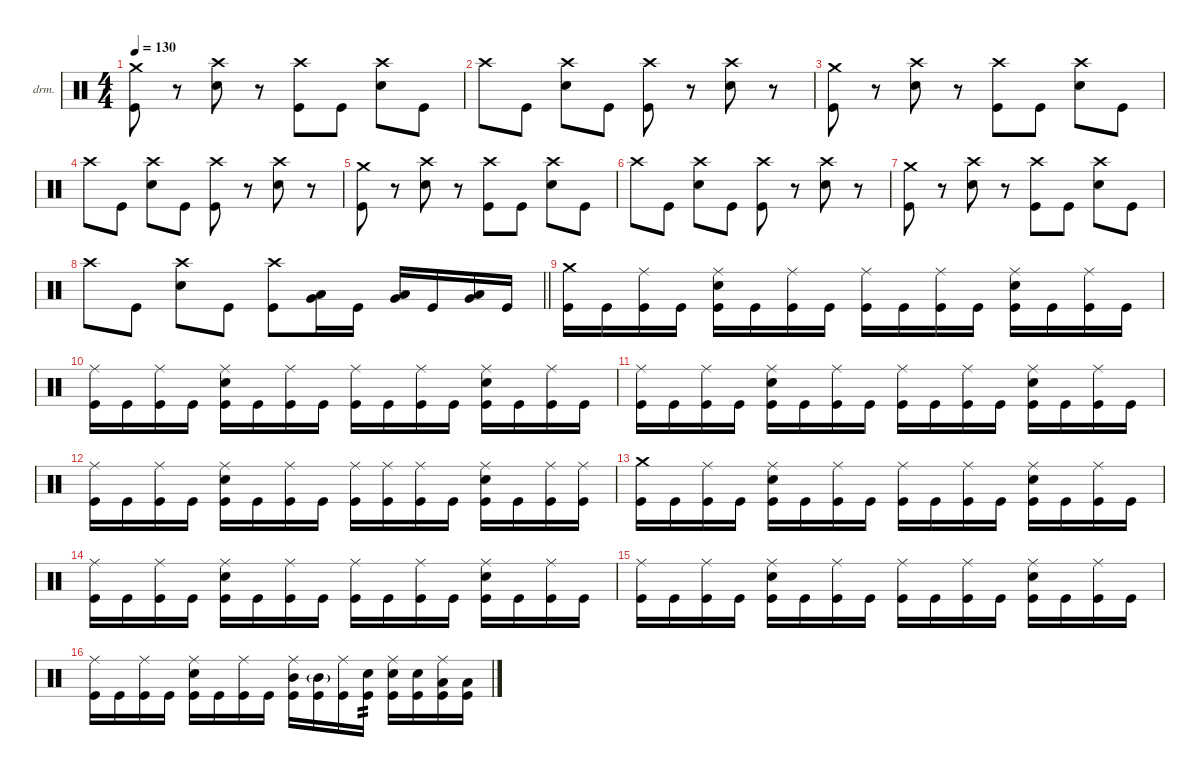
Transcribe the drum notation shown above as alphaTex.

\defaultSystemsLayout 4
\hideDynamics
\bracketExtendMode nobrackets
\firstSystemTrackNameOrientation horizontal
\otherSystemsTrackNameOrientation horizontal
\track ("Drums" "drm.") {instrument percussion}
\staff {score}
\articulation defaults
\ts (4 4)
\tempo 130
\clef neutral
\ks c
("Crash medium (hit)" "Kick (hit)").8{dy f} r.8 ("Crash high (hit)" "Snare (hit) 2").8 r.8 ("Crash high (hit)" "Kick (hit)").8 "Kick (hit)".8 ("Crash high (hit)" "Snare (hit) 2").8 "Kick (hit)".8 |
"Crash high (hit)".8 "Kick (hit)".8 ("Crash high (hit)" "Snare (hit) 2").8 "Kick (hit)".8 ("Crash high (hit)" "Kick (hit)").8 r.8 ("Crash high (hit)" "Snare (hit) 2").8 r.8 |
("Crash medium (hit)" "Kick (hit)").8 r.8 ("Crash high (hit)" "Snare (hit) 2").8 r.8 ("Crash high (hit)" "Kick (hit)").8 "Kick (hit)".8 ("Crash high (hit)" "Snare (hit) 2").8 "Kick (hit)".8 |
"Crash high (hit)".8 "Kick (hit)".8 ("Crash high (hit)" "Snare (hit) 2").8 "Kick (hit)".8 ("Crash high (hit)" "Kick (hit)").8 r.8 ("Crash high (hit)" "Snare (hit) 2").8 r.8 |
("Crash medium (hit)" "Kick (hit)").8 r.8 ("Crash high (hit)" "Snare (hit) 2").8 r.8 ("Crash high (hit)" "Kick (hit)").8 "Kick (hit)".8 ("Crash high (hit)" "Snare (hit) 2").8 "Kick (hit)".8 |
"Crash high (hit)".8 "Kick (hit)".8 ("Crash high (hit)" "Snare (hit) 2").8 "Kick (hit)".8 ("Crash high (hit)" "Kick (hit)").8 r.8 ("Crash high (hit)" "Snare (hit) 2").8 r.8 |
("Crash medium (hit)" "Kick (hit)").8 r.8 ("Crash high (hit)" "Snare (hit) 2").8 r.8 ("Crash high (hit)" "Kick (hit)").8 "Kick (hit)".8 ("Crash high (hit)" "Snare (hit) 2").8 "Kick (hit)".8 |
\barLineRight lightlight "Crash high (hit)".8 "Kick (hit)".8
("Crash high (hit)" "Snare (hit) 2").8 "Kick (hit)".8 ("Crash high (hit)" "Kick (hit)").8 ("Low Tom (hit)" "Very Low Tom (hit)").16 "Kick (hit)".16 ("Low Tom (hit)" "Very Low Tom (hit)").16 "Kick (hit)".16 ("Low Tom (hit)" "Very Low Tom (hit)").16 "Kick (hit)".16 |
\section ("" "")
("Crash medium (hit)" "Kick (hit)").16 "Kick (hit)".16 ("Ride (middle)" "Kick (hit)").16 "Kick (hit)".16 ("Ride (middle)" "Snare (hit) 2" "Kick (hit)").16 "Kick (hit)".16 ("Ride (middle)" "Kick (hit)").16 "Kick (hit)".16 ("Ride (middle)" "Kick (hit)").16 "Kick (hit)".16 ("Ride (middle)" "Kick (hit)").16 "Kick (hit)".16 ("Ride (middle)" "Snare (hit) 2" "Kick (hit)").16 "Kick (hit)".16 ("Ride (middle)" "Kick (hit)").16 "Kick (hit)".16 |
("Ride (middle)" "Kick (hit)").16 "Kick (hit)".16 ("Ride (middle)" "Kick (hit)").16 "Kick (hit)".16 ("Ride (middle)" "Snare (hit) 2" "Kick (hit)").16 "Kick (hit)".16 ("Ride (middle)" "Kick (hit)").16 "Kick (hit)".16 ("Ride (middle)" "Kick (hit)").16 "Kick (hit)".16 ("Ride (middle)" "Kick (hit)").16 "Kick (hit)".16 ("Ride (middle)" "Snare (hit) 2" "Kick (hit)").16 "Kick (hit)".16 ("Ride (middle)" "Kick (hit)").16 "Kick (hit)".16 |
("Ride (middle)" "Kick (hit)").16 "Kick (hit)".16 ("Ride (middle)" "Kick (hit)").16 "Kick (hit)".16 ("Ride (middle)" "Snare (hit) 2" "Kick (hit)").16 "Kick (hit)".16 ("Ride (middle)" "Kick (hit)").16 "Kick (hit)".16 ("Ride (middle)" "Kick (hit)").16 "Kick (hit)".16 ("Ride (middle)" "Kick (hit)").16 "Kick (hit)".16 ("Ride (middle)" "Snare (hit) 2" "Kick (hit)").16 "Kick (hit)".16 ("Ride (middle)" "Kick (hit)").16 "Kick (hit)".16 |
("Ride (middle)" "Kick (hit)").16 "Kick (hit)".16 ("Ride (middle)" "Kick (hit)").16 "Kick (hit)".16 ("Ride (middle)" "Snare (hit) 2" "Kick (hit)").16 "Kick (hit)".16 ("Ride (middle)" "Kick (hit)").16 "Kick (hit)".16 ("Ride (middle)" "Kick (hit)").16 ("Ride (middle)" "Kick (hit)").16 ("Ride (middle)" "Kick (hit)").16 "Kick (hit)".16 ("Ride (middle)" "Snare (hit) 2" "Kick (hit)").16 "Kick (hit)".16 ("Ride (middle)" "Kick (hit)").16 ("Ride (middle)" "Kick (hit)").16 |
("Crash medium (hit)" "Kick (hit)").16 "Kick (hit)".16 ("Ride (middle)" "Kick (hit)").16 "Kick (hit)".16 ("Ride (middle)" "Snare (hit) 2" "Kick (hit)").16 "Kick (hit)".16 ("Ride (middle)" "Kick (hit)").16 "Kick (hit)".16 ("Ride (middle)" "Kick (hit)").16 "Kick (hit)".16 ("Ride (middle)" "Kick (hit)").16 "Kick (hit)".16 ("Ride (middle)" "Snare (hit) 2" "Kick (hit)").16 "Kick (hit)".16 ("Ride (middle)" "Kick (hit)").16 "Kick (hit)".16 |
("Ride (middle)" "Kick (hit)").16 "Kick (hit)".16 ("Ride (middle)" "Kick (hit)").16 "Kick (hit)".16 ("Ride (middle)" "Snare (hit) 2" "Kick (hit)").16 "Kick (hit)".16 ("Ride (middle)" "Kick (hit)").16 "Kick (hit)".16 ("Ride (middle)" "Kick (hit)").16 "Kick (hit)".16 ("Ride (middle)" "Kick (hit)").16 "Kick (hit)".16 ("Ride (middle)" "Snare (hit) 2" "Kick (hit)").16 "Kick (hit)".16 ("Ride (middle)" "Kick (hit)").16 "Kick (hit)".16 |
("Ride (middle)" "Kick (hit)").16 "Kick (hit)".16 ("Ride (middle)" "Kick (hit)").16 "Kick (hit)".16 ("Ride (middle)" "Snare (hit) 2" "Kick (hit)").16 "Kick (hit)".16 ("Ride (middle)" "Kick (hit)").16 "Kick (hit)".16 ("Ride (middle)" "Kick (hit)").16 "Kick (hit)".16 ("Ride (middle)" "Kick (hit)").16 "Kick (hit)".16 ("Ride (middle)" "Snare (hit) 2" "Kick (hit)").16 "Kick (hit)".16 ("Ride (middle)" "Kick (hit)").16 "Kick (hit)".16 |
("Ride (middle)" "Kick (hit)").16 "Kick (hit)".16 ("Ride (middle)" "Kick (hit)").16 "Kick (hit)".16 ("Ride (middle)" "Snare (hit) 2" "Kick (hit)").16 "Kick (hit)".16 ("Ride (middle)" "Kick (hit)").16 "Kick (hit)".16 ("Ride (middle)" "Mid Tom (hit)" "Kick (hit)").16 ("Mid Tom (hit)"{g} "Kick (hit)").16 ("Ride (middle)" "Kick (hit)").16 ("Snare (hit) 2" "Kick (hit)").16{tp 2} ("Ride (middle)" "Snare (hit) 2" "Kick (hit)").16 ("Snare (hit) 2" "Kick (hit)").16 ("Ride (middle)" "Low Tom (hit)" "Kick (hit)").16 ("Low Tom (hit)" "Kick (hit)").16
